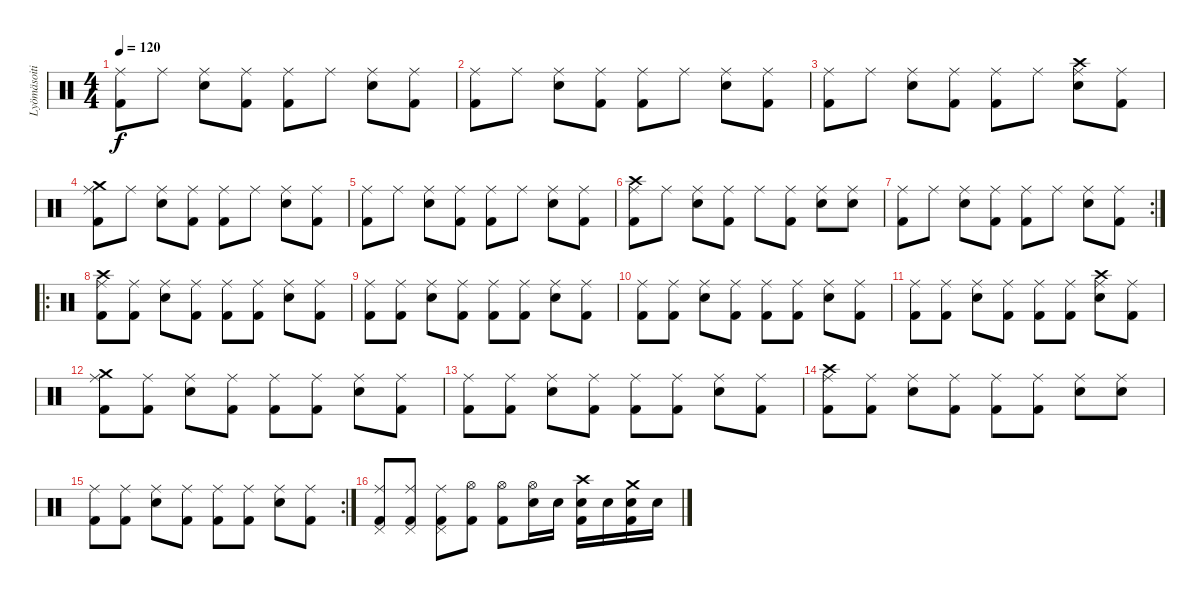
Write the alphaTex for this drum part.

\track ("Lyömäsoitin" "Lyömäsoiti") {instrument percussion}
\staff {score}
\articulation defaults
\ts (4 4)
\tempo 120
\clef neutral
\ks c
("Ride (middle)" "Kick (hit) 2").8{dy f} "Ride (middle)".8 ("Ride (middle)" "Electric Snare (hit)").8 ("Ride (middle)" "Kick (hit) 2").8 ("Ride (middle)" "Kick (hit) 2").8 "Ride (middle)".8 ("Ride (middle)" "Electric Snare (hit)").8 ("Ride (middle)" "Kick (hit) 2").8 |
("Ride (middle)" "Kick (hit) 2").8 "Ride (middle)".8 ("Ride (middle)" "Electric Snare (hit)").8 ("Ride (middle)" "Kick (hit) 2").8 ("Ride (middle)" "Kick (hit) 2").8 "Ride (middle)".8 ("Ride (middle)" "Electric Snare (hit)").8 ("Ride (middle)" "Kick (hit) 2").8 |
("Ride (middle)" "Kick (hit) 2").8 "Ride (middle)".8 ("Ride (middle)" "Electric Snare (hit)").8 ("Ride (middle)" "Kick (hit) 2").8 ("Ride (middle)" "Kick (hit) 2").8 "Ride (middle)".8 ("Crash high (hit)" "Ride (middle)" "Electric Snare (hit)").8 ("Ride (middle)" "Kick (hit) 2").8 |
("Crash medium (hit)" "Ride (middle)" "Kick (hit) 2").8 "Ride (middle)".8 ("Ride (middle)" "Electric Snare (hit)").8 ("Ride (middle)" "Kick (hit) 2").8 ("Ride (middle)" "Kick (hit) 2").8 "Ride (middle)".8 ("Ride (middle)" "Electric Snare (hit)").8 ("Ride (middle)" "Kick (hit) 2").8 |
("Ride (middle)" "Kick (hit) 2").8 "Ride (middle)".8 ("Ride (middle)" "Electric Snare (hit)").8 ("Ride (middle)" "Kick (hit) 2").8 ("Ride (middle)" "Kick (hit) 2").8 "Ride (middle)".8 ("Ride (middle)" "Electric Snare (hit)").8 ("Ride (middle)" "Kick (hit) 2").8 |
("Crash high (hit)" "Ride (middle)" "Kick (hit) 2").8 "Ride (middle)".8 ("Ride (middle)" "Electric Snare (hit)").8 ("Ride (middle)" "Kick (hit) 2").8 "Ride (middle)".8 ("Ride (middle)" "Kick (hit) 2").8 ("Ride (middle)" "Electric Snare (hit)").8 ("Ride (middle)" "Electric Snare (hit)").8 |
\rc 2
("Ride (middle)" "Kick (hit) 2").8 "Ride (middle)".8 ("Ride (middle)" "Electric Snare (hit)").8 ("Ride (middle)" "Kick (hit) 2").8 ("Ride (middle)" "Kick (hit) 2").8 "Ride (middle)".8 ("Ride (middle)" "Electric Snare (hit)").8 ("Ride (middle)" "Kick (hit) 2").8 |
\ro
("Crash high (hit)" "Ride (middle)" "Kick (hit) 2").8 ("Ride (middle)" "Kick (hit) 2").8 ("Ride (middle)" "Electric Snare (hit)").8 ("Ride (middle)" "Kick (hit) 2").8 ("Ride (middle)" "Kick (hit) 2").8 ("Ride (middle)" "Kick (hit) 2").8 ("Ride (middle)" "Electric Snare (hit)").8 ("Ride (middle)" "Kick (hit) 2").8 |
("Ride (middle)" "Kick (hit) 2").8 ("Ride (middle)" "Kick (hit) 2").8 ("Ride (middle)" "Electric Snare (hit)").8 ("Ride (middle)" "Kick (hit) 2").8 ("Ride (middle)" "Kick (hit) 2").8 ("Ride (middle)" "Kick (hit) 2").8 ("Ride (middle)" "Electric Snare (hit)").8 ("Ride (middle)" "Kick (hit) 2").8 |
("Ride (middle)" "Kick (hit) 2").8 ("Ride (middle)" "Kick (hit) 2").8 ("Ride (middle)" "Electric Snare (hit)").8 ("Ride (middle)" "Kick (hit) 2").8 ("Ride (middle)" "Kick (hit) 2").8 ("Ride (middle)" "Kick (hit) 2").8 ("Ride (middle)" "Electric Snare (hit)").8 ("Ride (middle)" "Kick (hit) 2").8 |
("Ride (middle)" "Kick (hit) 2").8 ("Ride (middle)" "Kick (hit) 2").8 ("Ride (middle)" "Electric Snare (hit)").8 ("Ride (middle)" "Kick (hit) 2").8 ("Ride (middle)" "Kick (hit) 2").8 ("Ride (middle)" "Kick (hit) 2").8 ("Crash high (hit)" "Ride (middle)" "Electric Snare (hit)").8 ("Ride (middle)" "Kick (hit) 2").8 |
("Crash medium (hit)" "Ride (middle)" "Kick (hit) 2").8 ("Ride (middle)" "Kick (hit) 2").8 ("Ride (middle)" "Electric Snare (hit)").8 ("Ride (middle)" "Kick (hit) 2").8 ("Ride (middle)" "Kick (hit) 2").8 ("Ride (middle)" "Kick (hit) 2").8 ("Ride (middle)" "Electric Snare (hit)").8 ("Ride (middle)" "Kick (hit) 2").8 |
("Ride (middle)" "Kick (hit) 2").8 ("Ride (middle)" "Kick (hit) 2").8 ("Ride (middle)" "Electric Snare (hit)").8 ("Ride (middle)" "Kick (hit) 2").8 ("Ride (middle)" "Kick (hit) 2").8 ("Ride (middle)" "Kick (hit) 2").8 ("Ride (middle)" "Electric Snare (hit)").8 ("Ride (middle)" "Kick (hit) 2").8 |
("Crash high (hit)" "Ride (middle)" "Kick (hit) 2").8 ("Ride (middle)" "Kick (hit) 2").8 ("Ride (middle)" "Electric Snare (hit)").8 ("Ride (middle)" "Kick (hit) 2").8 ("Ride (middle)" "Kick (hit) 2").8 ("Ride (middle)" "Kick (hit) 2").8 ("Ride (middle)" "Electric Snare (hit)").8 ("Ride (middle)" "Electric Snare (hit)").8 |
\rc 2
("Ride (middle)" "Kick (hit) 2").8 ("Ride (middle)" "Kick (hit) 2").8 ("Ride (middle)" "Electric Snare (hit)").8 ("Ride (middle)" "Kick (hit) 2").8 ("Ride (middle)" "Kick (hit) 2").8 ("Ride (middle)" "Kick (hit) 2").8 ("Ride (middle)" "Electric Snare (hit)").8 ("Ride (middle)" "Kick (hit) 2").8 |
("Ride (middle)" "Pedal Hi-Hat (hit)" "Kick (hit) 2").8 ("Ride (middle)" "Pedal Hi-Hat (hit)" "Kick (hit) 2").8 ("Ride (middle)" "Pedal Hi-Hat (hit)" "Kick (hit) 2").8 ("Hi-Hat (open)" "Kick (hit) 2").8 ("Hi-Hat (open)" "Kick (hit) 2").8 ("Hi-Hat (open)" "Electric Snare (hit)").16 "Electric Snare (hit)".16 ("Crash high (hit)" "Electric Snare (hit)" "Kick (hit) 2").16 "Electric Snare (hit)".16 ("Crash medium (hit)" "Electric Snare (hit)" "Kick (hit) 2").16 "Electric Snare (hit)".16
